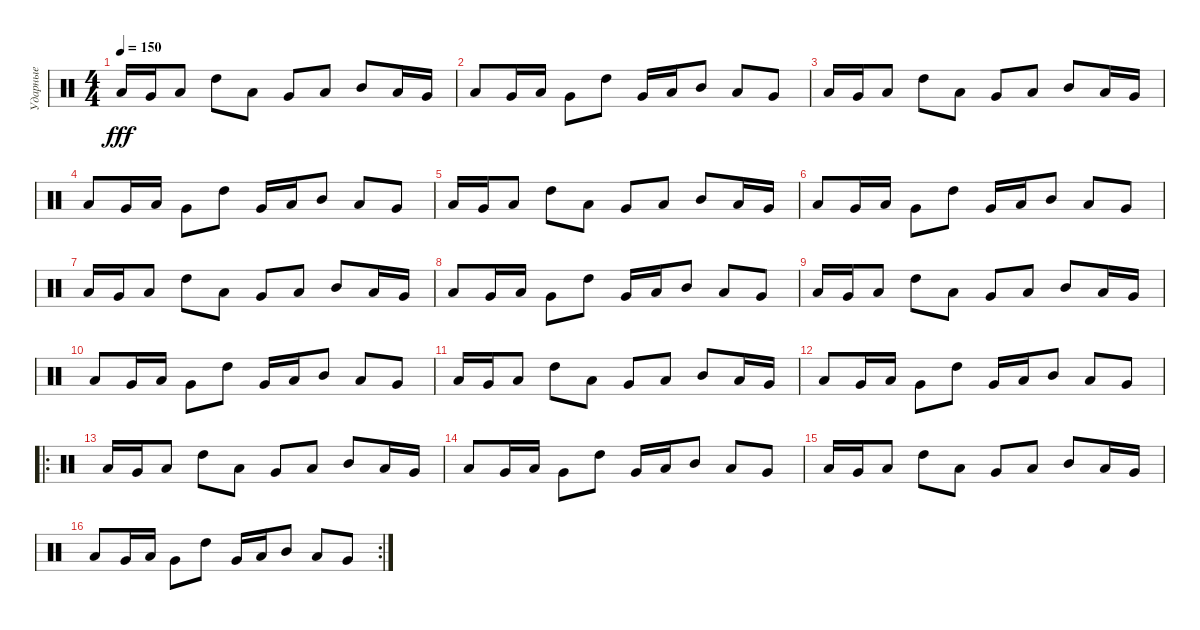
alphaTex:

\track ("Ударные" "Ударные") {instrument percussion}
\staff {score}
\articulation defaults
\ts (4 4)
\tempo 150
\clef neutral
\ks c "Low Floor Tom (hit)".16{dy fff} "Very Low Tom (hit)".16 "Low Tom (hit)".8 "High Tom (hit)".8 "Low Tom (hit)".8 "Very Low Tom (hit)".8 "Low Floor Tom (hit)".8 "Mid Tom (hit)".8 "Low Tom (hit)".16 "Very Low Tom (hit)".16
|
"Low Floor Tom (hit)".8 "Very Low Tom (hit)".16 "Low Tom (hit)".16 "Very Low Tom (hit)".8 "High Tom (hit)".8 "Very Low Tom (hit)".16 "Low Floor Tom (hit)".16 "Mid Tom (hit)".8 "Low Tom (hit)".8 "Very Low Tom (hit)".8 |
"Low Floor Tom (hit)".16 "Very Low Tom (hit)".16 "Low Tom (hit)".8 "High Tom (hit)".8 "Low Tom (hit)".8 "Very Low Tom (hit)".8 "Low Floor Tom (hit)".8 "Mid Tom (hit)".8 "Low Tom (hit)".16 "Very Low Tom (hit)".16 |
"Low Floor Tom (hit)".8 "Very Low Tom (hit)".16 "Low Tom (hit)".16 "Very Low Tom (hit)".8 "High Tom (hit)".8 "Very Low Tom (hit)".16 "Low Floor Tom (hit)".16 "Mid Tom (hit)".8 "Low Tom (hit)".8 "Very Low Tom (hit)".8 |
"Low Floor Tom (hit)".16 "Very Low Tom (hit)".16 "Low Tom (hit)".8 "High Tom (hit)".8 "Low Tom (hit)".8 "Very Low Tom (hit)".8 "Low Floor Tom (hit)".8 "Mid Tom (hit)".8 "Low Tom (hit)".16 "Very Low Tom (hit)".16 |
"Low Floor Tom (hit)".8 "Very Low Tom (hit)".16 "Low Tom (hit)".16 "Very Low Tom (hit)".8 "High Tom (hit)".8 "Very Low Tom (hit)".16 "Low Floor Tom (hit)".16 "Mid Tom (hit)".8 "Low Tom (hit)".8 "Very Low Tom (hit)".8 |
"Low Floor Tom (hit)".16 "Very Low Tom (hit)".16 "Low Tom (hit)".8 "High Tom (hit)".8 "Low Tom (hit)".8 "Very Low Tom (hit)".8 "Low Floor Tom (hit)".8 "Mid Tom (hit)".8 "Low Tom (hit)".16 "Very Low Tom (hit)".16 |
"Low Floor Tom (hit)".8 "Very Low Tom (hit)".16 "Low Tom (hit)".16 "Very Low Tom (hit)".8 "High Tom (hit)".8 "Very Low Tom (hit)".16 "Low Floor Tom (hit)".16 "Mid Tom (hit)".8 "Low Tom (hit)".8 "Very Low Tom (hit)".8 |
"Low Floor Tom (hit)".16 "Very Low Tom (hit)".16 "Low Tom (hit)".8 "High Tom (hit)".8 "Low Tom (hit)".8 "Very Low Tom (hit)".8 "Low Floor Tom (hit)".8 "Mid Tom (hit)".8 "Low Tom (hit)".16 "Very Low Tom (hit)".16 |
"Low Floor Tom (hit)".8 "Very Low Tom (hit)".16 "Low Tom (hit)".16 "Very Low Tom (hit)".8 "High Tom (hit)".8 "Very Low Tom (hit)".16 "Low Floor Tom (hit)".16 "Mid Tom (hit)".8 "Low Tom (hit)".8 "Very Low Tom (hit)".8 |
"Low Floor Tom (hit)".16 "Very Low Tom (hit)".16 "Low Tom (hit)".8 "High Tom (hit)".8 "Low Tom (hit)".8 "Very Low Tom (hit)".8 "Low Floor Tom (hit)".8 "Mid Tom (hit)".8 "Low Tom (hit)".16 "Very Low Tom (hit)".16 |
"Low Floor Tom (hit)".8 "Very Low Tom (hit)".16 "Low Tom (hit)".16 "Very Low Tom (hit)".8 "High Tom (hit)".8 "Very Low Tom (hit)".16 "Low Floor Tom (hit)".16 "Mid Tom (hit)".8 "Low Tom (hit)".8 "Very Low Tom (hit)".8 |
\ro "Low Floor Tom (hit)".16 "Very Low Tom (hit)".16 "Low Tom (hit)".8 "High Tom (hit)".8 "Low Tom (hit)".8 "Very Low Tom (hit)".8 "Low Floor Tom (hit)".8 "Mid Tom (hit)".8 "Low Tom (hit)".16 "Very Low Tom (hit)".16
|
"Low Floor Tom (hit)".8 "Very Low Tom (hit)".16 "Low Tom (hit)".16 "Very Low Tom (hit)".8 "High Tom (hit)".8 "Very Low Tom (hit)".16 "Low Floor Tom (hit)".16 "Mid Tom (hit)".8 "Low Tom (hit)".8 "Very Low Tom (hit)".8 |
"Low Floor Tom (hit)".16 "Very Low Tom (hit)".16 "Low Tom (hit)".8 "High Tom (hit)".8 "Low Tom (hit)".8 "Very Low Tom (hit)".8 "Low Floor Tom (hit)".8 "Mid Tom (hit)".8 "Low Tom (hit)".16 "Very Low Tom (hit)".16 |
\rc 2 "Low Floor Tom (hit)".8 "Very Low Tom (hit)".16 "Low Tom (hit)".16 "Very Low Tom (hit)".8 "High Tom (hit)".8 "Very Low Tom (hit)".16 "Low Floor Tom (hit)".16 "Mid Tom (hit)".8 "Low Tom (hit)".8 "Very Low Tom (hit)".8
